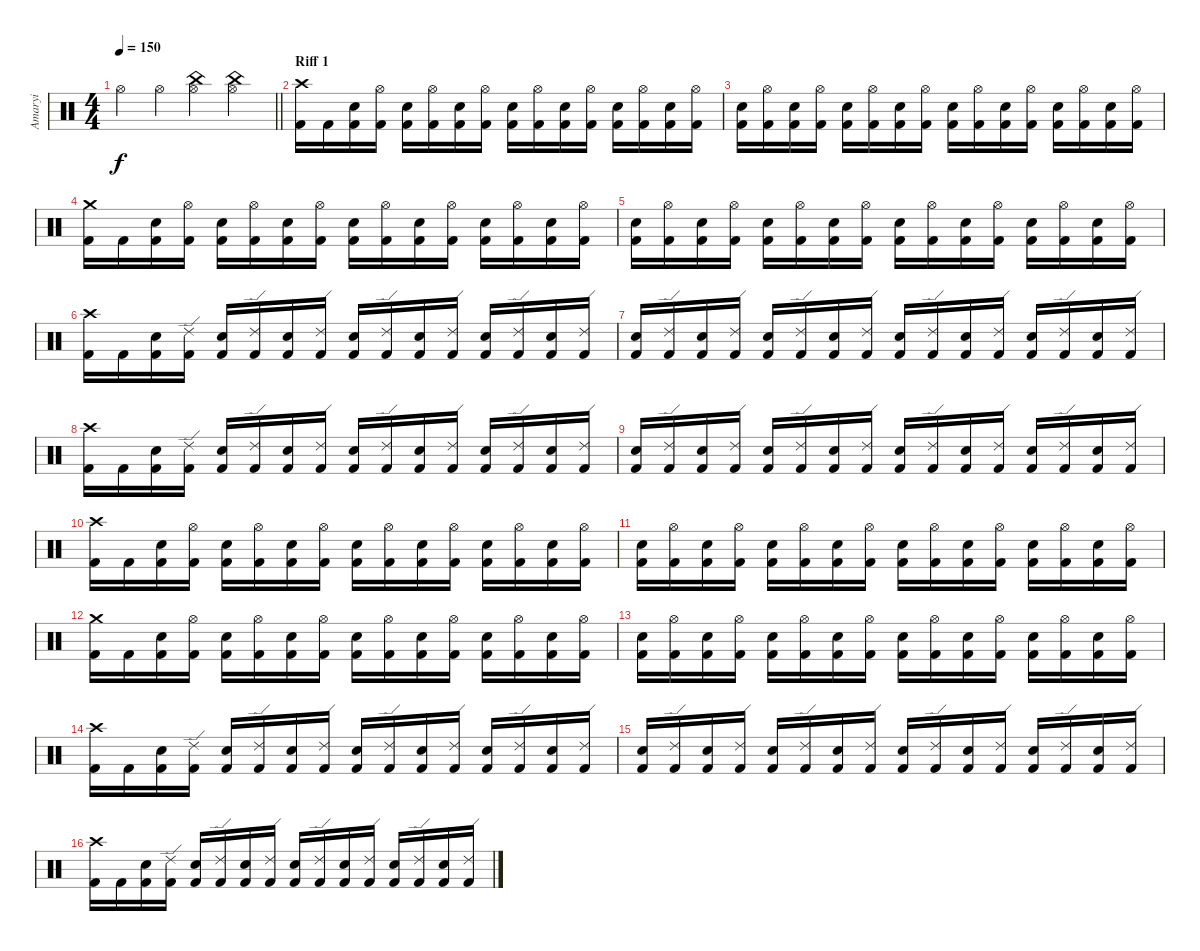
\track ("Amaryi" "Amaryi") {instrument percussion}
\staff {score}
\articulation defaults
\ts (4 4)
\tempo 150
\clef neutral
\barLineRight lightlight
\ks c "Hi-Hat (open)".4{dy f} "Hi-Hat (open)".4
("Hi-Hat (open)" "China (hit)").4 ("Hi-Hat (open)" "China (hit)").4 |
\section ("" "Riff 1")
("Crash high (hit)" "Kick (hit) 2").16 "Kick (hit) 2".16 ("Electric Snare (hit)" "Kick (hit) 2").16 ("Hi-Hat (open)" "Kick (hit) 2").16 ("Electric Snare (hit)" "Kick (hit) 2").16 ("Hi-Hat (open)" "Kick (hit) 2").16 ("Electric Snare (hit)" "Kick (hit) 2").16 ("Hi-Hat (open)" "Kick (hit) 2").16 ("Electric Snare (hit)" "Kick (hit) 2").16 ("Hi-Hat (open)" "Kick (hit) 2").16 ("Electric Snare (hit)" "Kick (hit) 2").16 ("Hi-Hat (open)" "Kick (hit) 2").16 ("Electric Snare (hit)" "Kick (hit) 2").16 ("Hi-Hat (open)" "Kick (hit) 2").16 ("Electric Snare (hit)" "Kick (hit) 2").16 ("Hi-Hat (open)" "Kick (hit) 2").16 |
("Electric Snare (hit)" "Kick (hit) 2").16 ("Hi-Hat (open)" "Kick (hit) 2").16 ("Electric Snare (hit)" "Kick (hit) 2").16 ("Hi-Hat (open)" "Kick (hit) 2").16 ("Electric Snare (hit)" "Kick (hit) 2").16 ("Hi-Hat (open)" "Kick (hit) 2").16 ("Electric Snare (hit)" "Kick (hit) 2").16 ("Hi-Hat (open)" "Kick (hit) 2").16 ("Electric Snare (hit)" "Kick (hit) 2").16 ("Hi-Hat (open)" "Kick (hit) 2").16 ("Electric Snare (hit)" "Kick (hit) 2").16 ("Hi-Hat (open)" "Kick (hit) 2").16 ("Electric Snare (hit)" "Kick (hit) 2").16 ("Hi-Hat (open)" "Kick (hit) 2").16 ("Electric Snare (hit)" "Kick (hit) 2").16 ("Hi-Hat (open)" "Kick (hit) 2").16 |
("Crash medium (hit)" "Kick (hit) 2").16 "Kick (hit) 2".16 ("Electric Snare (hit)" "Kick (hit) 2").16 ("Hi-Hat (open)" "Kick (hit) 2").16 ("Electric Snare (hit)" "Kick (hit) 2").16 ("Hi-Hat (open)" "Kick (hit) 2").16 ("Electric Snare (hit)" "Kick (hit) 2").16 ("Hi-Hat (open)" "Kick (hit) 2").16 ("Electric Snare (hit)" "Kick (hit) 2").16 ("Hi-Hat (open)" "Kick (hit) 2").16 ("Electric Snare (hit)" "Kick (hit) 2").16 ("Hi-Hat (open)" "Kick (hit) 2").16 ("Electric Snare (hit)" "Kick (hit) 2").16 ("Hi-Hat (open)" "Kick (hit) 2").16 ("Electric Snare (hit)" "Kick (hit) 2").16 ("Hi-Hat (open)" "Kick (hit) 2").16 |
("Electric Snare (hit)" "Kick (hit) 2").16 ("Hi-Hat (open)" "Kick (hit) 2").16 ("Electric Snare (hit)" "Kick (hit) 2").16 ("Hi-Hat (open)" "Kick (hit) 2").16 ("Electric Snare (hit)" "Kick (hit) 2").16 ("Hi-Hat (open)" "Kick (hit) 2").16 ("Electric Snare (hit)" "Kick (hit) 2").16 ("Hi-Hat (open)" "Kick (hit) 2").16 ("Electric Snare (hit)" "Kick (hit) 2").16 ("Hi-Hat (open)" "Kick (hit) 2").16 ("Electric Snare (hit)" "Kick (hit) 2").16 ("Hi-Hat (open)" "Kick (hit) 2").16 ("Electric Snare (hit)" "Kick (hit) 2").16 ("Hi-Hat (open)" "Kick (hit) 2").16 ("Electric Snare (hit)" "Kick (hit) 2").16 ("Hi-Hat (open)" "Kick (hit) 2").16 |
("Crash high (hit)" "Kick (hit) 2").16 "Kick (hit) 2".16 ("Electric Snare (hit)" "Kick (hit) 2").16 ("Ride (edge) 2" "Kick (hit) 2").16 ("Electric Snare (hit)" "Kick (hit) 2").16 ("Ride (edge) 2" "Kick (hit) 2").16 ("Electric Snare (hit)" "Kick (hit) 2").16 ("Ride (edge) 2" "Kick (hit) 2").16 ("Electric Snare (hit)" "Kick (hit) 2").16 ("Ride (edge) 2" "Kick (hit) 2").16 ("Electric Snare (hit)" "Kick (hit) 2").16 ("Ride (edge) 2" "Kick (hit) 2").16 ("Electric Snare (hit)" "Kick (hit) 2").16 ("Ride (edge) 2" "Kick (hit) 2").16 ("Electric Snare (hit)" "Kick (hit) 2").16 ("Ride (edge) 2" "Kick (hit) 2").16 |
("Electric Snare (hit)" "Kick (hit) 2").16 ("Ride (edge) 2" "Kick (hit) 2").16 ("Electric Snare (hit)" "Kick (hit) 2").16 ("Ride (edge) 2" "Kick (hit) 2").16 ("Electric Snare (hit)" "Kick (hit) 2").16 ("Ride (edge) 2" "Kick (hit) 2").16 ("Electric Snare (hit)" "Kick (hit) 2").16 ("Ride (edge) 2" "Kick (hit) 2").16 ("Electric Snare (hit)" "Kick (hit) 2").16 ("Ride (edge) 2" "Kick (hit) 2").16 ("Electric Snare (hit)" "Kick (hit) 2").16 ("Ride (edge) 2" "Kick (hit) 2").16 ("Electric Snare (hit)" "Kick (hit) 2").16 ("Ride (edge) 2" "Kick (hit) 2").16 ("Electric Snare (hit)" "Kick (hit) 2").16 ("Ride (edge) 2" "Kick (hit) 2").16 |
("Crash high (hit)" "Kick (hit) 2").16 "Kick (hit) 2".16 ("Electric Snare (hit)" "Kick (hit) 2").16 ("Ride (edge) 2" "Kick (hit) 2").16 ("Electric Snare (hit)" "Kick (hit) 2").16 ("Ride (edge) 2" "Kick (hit) 2").16 ("Electric Snare (hit)" "Kick (hit) 2").16 ("Ride (edge) 2" "Kick (hit) 2").16 ("Electric Snare (hit)" "Kick (hit) 2").16 ("Ride (edge) 2" "Kick (hit) 2").16 ("Electric Snare (hit)" "Kick (hit) 2").16 ("Ride (edge) 2" "Kick (hit) 2").16 ("Electric Snare (hit)" "Kick (hit) 2").16 ("Ride (edge) 2" "Kick (hit) 2").16 ("Electric Snare (hit)" "Kick (hit) 2").16 ("Ride (edge) 2" "Kick (hit) 2").16 |
("Electric Snare (hit)" "Kick (hit) 2").16 ("Ride (edge) 2" "Kick (hit) 2").16 ("Electric Snare (hit)" "Kick (hit) 2").16 ("Ride (edge) 2" "Kick (hit) 2").16 ("Electric Snare (hit)" "Kick (hit) 2").16 ("Ride (edge) 2" "Kick (hit) 2").16 ("Electric Snare (hit)" "Kick (hit) 2").16 ("Ride (edge) 2" "Kick (hit) 2").16 ("Electric Snare (hit)" "Kick (hit) 2").16 ("Ride (edge) 2" "Kick (hit) 2").16 ("Electric Snare (hit)" "Kick (hit) 2").16 ("Ride (edge) 2" "Kick (hit) 2").16 ("Electric Snare (hit)" "Kick (hit) 2").16 ("Ride (edge) 2" "Kick (hit) 2").16 ("Electric Snare (hit)" "Kick (hit) 2").16 ("Ride (edge) 2" "Kick (hit) 2").16 |
("Crash high (hit)" "Kick (hit) 2").16 "Kick (hit) 2".16 ("Electric Snare (hit)" "Kick (hit) 2").16 ("Hi-Hat (open)" "Kick (hit) 2").16 ("Electric Snare (hit)" "Kick (hit) 2").16 ("Hi-Hat (open)" "Kick (hit) 2").16 ("Electric Snare (hit)" "Kick (hit) 2").16 ("Hi-Hat (open)" "Kick (hit) 2").16 ("Electric Snare (hit)" "Kick (hit) 2").16 ("Hi-Hat (open)" "Kick (hit) 2").16 ("Electric Snare (hit)" "Kick (hit) 2").16 ("Hi-Hat (open)" "Kick (hit) 2").16 ("Electric Snare (hit)" "Kick (hit) 2").16 ("Hi-Hat (open)" "Kick (hit) 2").16 ("Electric Snare (hit)" "Kick (hit) 2").16 ("Hi-Hat (open)" "Kick (hit) 2").16 |
("Electric Snare (hit)" "Kick (hit) 2").16 ("Hi-Hat (open)" "Kick (hit) 2").16 ("Electric Snare (hit)" "Kick (hit) 2").16 ("Hi-Hat (open)" "Kick (hit) 2").16 ("Electric Snare (hit)" "Kick (hit) 2").16 ("Hi-Hat (open)" "Kick (hit) 2").16 ("Electric Snare (hit)" "Kick (hit) 2").16 ("Hi-Hat (open)" "Kick (hit) 2").16 ("Electric Snare (hit)" "Kick (hit) 2").16 ("Hi-Hat (open)" "Kick (hit) 2").16 ("Electric Snare (hit)" "Kick (hit) 2").16 ("Hi-Hat (open)" "Kick (hit) 2").16 ("Electric Snare (hit)" "Kick (hit) 2").16 ("Hi-Hat (open)" "Kick (hit) 2").16 ("Electric Snare (hit)" "Kick (hit) 2").16 ("Hi-Hat (open)" "Kick (hit) 2").16 |
("Crash medium (hit)" "Kick (hit) 2").16 "Kick (hit) 2".16 ("Electric Snare (hit)" "Kick (hit) 2").16 ("Hi-Hat (open)" "Kick (hit) 2").16 ("Electric Snare (hit)" "Kick (hit) 2").16 ("Hi-Hat (open)" "Kick (hit) 2").16 ("Electric Snare (hit)" "Kick (hit) 2").16 ("Hi-Hat (open)" "Kick (hit) 2").16 ("Electric Snare (hit)" "Kick (hit) 2").16 ("Hi-Hat (open)" "Kick (hit) 2").16 ("Electric Snare (hit)" "Kick (hit) 2").16 ("Hi-Hat (open)" "Kick (hit) 2").16 ("Electric Snare (hit)" "Kick (hit) 2").16 ("Hi-Hat (open)" "Kick (hit) 2").16 ("Electric Snare (hit)" "Kick (hit) 2").16 ("Hi-Hat (open)" "Kick (hit) 2").16 |
("Electric Snare (hit)" "Kick (hit) 2").16 ("Hi-Hat (open)" "Kick (hit) 2").16 ("Electric Snare (hit)" "Kick (hit) 2").16 ("Hi-Hat (open)" "Kick (hit) 2").16 ("Electric Snare (hit)" "Kick (hit) 2").16 ("Hi-Hat (open)" "Kick (hit) 2").16 ("Electric Snare (hit)" "Kick (hit) 2").16 ("Hi-Hat (open)" "Kick (hit) 2").16 ("Electric Snare (hit)" "Kick (hit) 2").16 ("Hi-Hat (open)" "Kick (hit) 2").16 ("Electric Snare (hit)" "Kick (hit) 2").16 ("Hi-Hat (open)" "Kick (hit) 2").16 ("Electric Snare (hit)" "Kick (hit) 2").16 ("Hi-Hat (open)" "Kick (hit) 2").16 ("Electric Snare (hit)" "Kick (hit) 2").16 ("Hi-Hat (open)" "Kick (hit) 2").16 |
("Crash high (hit)" "Kick (hit) 2").16 "Kick (hit) 2".16 ("Electric Snare (hit)" "Kick (hit) 2").16 ("Ride (edge) 2" "Kick (hit) 2").16 ("Electric Snare (hit)" "Kick (hit) 2").16 ("Ride (edge) 2" "Kick (hit) 2").16 ("Electric Snare (hit)" "Kick (hit) 2").16 ("Ride (edge) 2" "Kick (hit) 2").16 ("Electric Snare (hit)" "Kick (hit) 2").16 ("Ride (edge) 2" "Kick (hit) 2").16 ("Electric Snare (hit)" "Kick (hit) 2").16 ("Ride (edge) 2" "Kick (hit) 2").16 ("Electric Snare (hit)" "Kick (hit) 2").16 ("Ride (edge) 2" "Kick (hit) 2").16 ("Electric Snare (hit)" "Kick (hit) 2").16 ("Ride (edge) 2" "Kick (hit) 2").16 |
("Electric Snare (hit)" "Kick (hit) 2").16 ("Ride (edge) 2" "Kick (hit) 2").16 ("Electric Snare (hit)" "Kick (hit) 2").16 ("Ride (edge) 2" "Kick (hit) 2").16 ("Electric Snare (hit)" "Kick (hit) 2").16 ("Ride (edge) 2" "Kick (hit) 2").16 ("Electric Snare (hit)" "Kick (hit) 2").16 ("Ride (edge) 2" "Kick (hit) 2").16 ("Electric Snare (hit)" "Kick (hit) 2").16 ("Ride (edge) 2" "Kick (hit) 2").16 ("Electric Snare (hit)" "Kick (hit) 2").16 ("Ride (edge) 2" "Kick (hit) 2").16 ("Electric Snare (hit)" "Kick (hit) 2").16 ("Ride (edge) 2" "Kick (hit) 2").16 ("Electric Snare (hit)" "Kick (hit) 2").16 ("Ride (edge) 2" "Kick (hit) 2").16 |
("Crash high (hit)" "Kick (hit) 2").16 "Kick (hit) 2".16 ("Electric Snare (hit)" "Kick (hit) 2").16 ("Ride (edge) 2" "Kick (hit) 2").16 ("Electric Snare (hit)" "Kick (hit) 2").16 ("Ride (edge) 2" "Kick (hit) 2").16 ("Electric Snare (hit)" "Kick (hit) 2").16 ("Ride (edge) 2" "Kick (hit) 2").16 ("Electric Snare (hit)" "Kick (hit) 2").16 ("Ride (edge) 2" "Kick (hit) 2").16 ("Electric Snare (hit)" "Kick (hit) 2").16 ("Ride (edge) 2" "Kick (hit) 2").16 ("Electric Snare (hit)" "Kick (hit) 2").16 ("Ride (edge) 2" "Kick (hit) 2").16 ("Electric Snare (hit)" "Kick (hit) 2").16 ("Ride (edge) 2" "Kick (hit) 2").16
